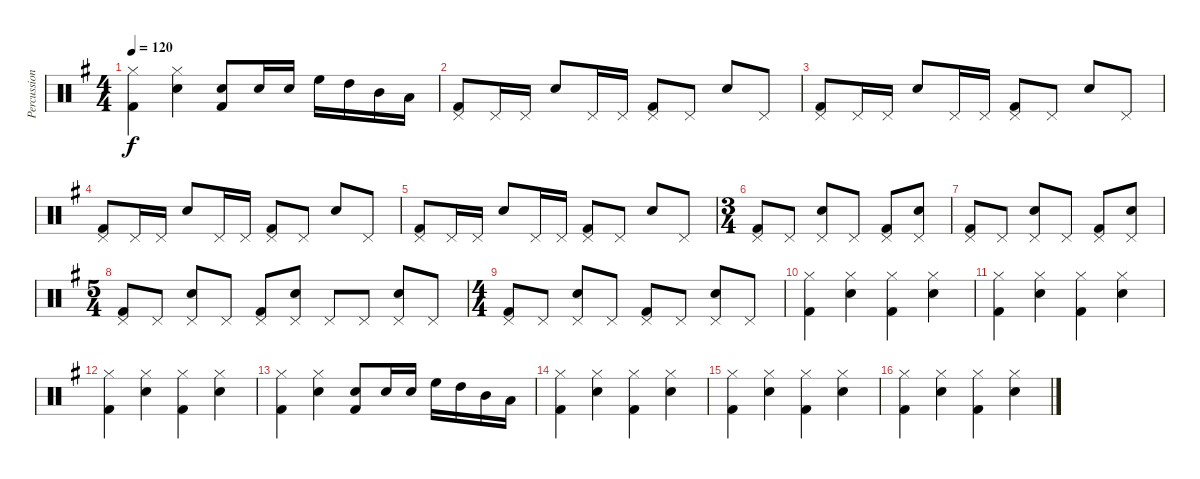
\track ("Percussion" "Percussion") {instrument percussion}
\staff {score}
\articulation defaults
\ts (4 4)
\tempo 120
\clef neutral
\ks eminor
("Hi-Hat (closed)" "Kick (hit) 2").4{dy f} ("Hi-Hat (closed)" "Snare (hit) 2").4 ("Snare (hit) 2" "Kick (hit) 2").8 "Snare (hit) 2".16 "Snare (hit) 2".16 "High Floor Tom (hit)".16 "High Tom (hit)".16 "Mid Tom (hit)".16 "Low Tom (hit)".16 |
("Pedal Hi-Hat (hit)" "Kick (hit) 2").8 "Pedal Hi-Hat (hit)".16 "Pedal Hi-Hat (hit)".16 "Snare (hit) 2".8 "Pedal Hi-Hat (hit)".16 "Pedal Hi-Hat (hit)".16 ("Pedal Hi-Hat (hit)" "Kick (hit) 2").8 "Pedal Hi-Hat (hit)".8 "Snare (hit) 2".8 "Pedal Hi-Hat (hit)".8 |
("Pedal Hi-Hat (hit)" "Kick (hit) 2").8 "Pedal Hi-Hat (hit)".16 "Pedal Hi-Hat (hit)".16 "Snare (hit) 2".8 "Pedal Hi-Hat (hit)".16 "Pedal Hi-Hat (hit)".16 ("Pedal Hi-Hat (hit)" "Kick (hit) 2").8 "Pedal Hi-Hat (hit)".8 "Snare (hit) 2".8 "Pedal Hi-Hat (hit)".8 |
("Pedal Hi-Hat (hit)" "Kick (hit) 2").8 "Pedal Hi-Hat (hit)".16 "Pedal Hi-Hat (hit)".16 "Snare (hit) 2".8 "Pedal Hi-Hat (hit)".16 "Pedal Hi-Hat (hit)".16 ("Pedal Hi-Hat (hit)" "Kick (hit) 2").8 "Pedal Hi-Hat (hit)".8 "Snare (hit) 2".8 "Pedal Hi-Hat (hit)".8 |
("Pedal Hi-Hat (hit)" "Kick (hit) 2").8 "Pedal Hi-Hat (hit)".16 "Pedal Hi-Hat (hit)".16 "Snare (hit) 2".8 "Pedal Hi-Hat (hit)".16 "Pedal Hi-Hat (hit)".16 ("Pedal Hi-Hat (hit)" "Kick (hit) 2").8 "Pedal Hi-Hat (hit)".8 "Snare (hit) 2".8 "Pedal Hi-Hat (hit)".8 |
\ts (3 4)
("Pedal Hi-Hat (hit)" "Kick (hit) 2").8 "Pedal Hi-Hat (hit)".8 ("Pedal Hi-Hat (hit)" "Snare (hit) 2").8 "Pedal Hi-Hat (hit)".8 ("Pedal Hi-Hat (hit)" "Kick (hit) 2").8 ("Pedal Hi-Hat (hit)" "Snare (hit) 2").8 |
("Pedal Hi-Hat (hit)" "Kick (hit) 2").8 "Pedal Hi-Hat (hit)".8 ("Pedal Hi-Hat (hit)" "Snare (hit) 2").8 "Pedal Hi-Hat (hit)".8 ("Pedal Hi-Hat (hit)" "Kick (hit) 2").8 ("Pedal Hi-Hat (hit)" "Snare (hit) 2").8 |
\ts (5 4)
("Pedal Hi-Hat (hit)" "Kick (hit) 2").8 "Pedal Hi-Hat (hit)".8 ("Pedal Hi-Hat (hit)" "Snare (hit) 2").8 "Pedal Hi-Hat (hit)".8 ("Pedal Hi-Hat (hit)" "Kick (hit) 2").8 ("Pedal Hi-Hat (hit)" "Snare (hit) 2").8 "Pedal Hi-Hat (hit)".8 "Pedal Hi-Hat (hit)".8 ("Pedal Hi-Hat (hit)" "Snare (hit) 2").8 "Pedal Hi-Hat (hit)".8 |
\ts (4 4)
("Pedal Hi-Hat (hit)" "Kick (hit) 2").8 "Pedal Hi-Hat (hit)".8 ("Pedal Hi-Hat (hit)" "Snare (hit) 2").8 "Pedal Hi-Hat (hit)".8 ("Pedal Hi-Hat (hit)" "Kick (hit) 2").8 "Pedal Hi-Hat (hit)".8 ("Pedal Hi-Hat (hit)" "Snare (hit) 2").8 "Pedal Hi-Hat (hit)".8 |
("Hi-Hat (closed)" "Kick (hit) 2").4 ("Hi-Hat (closed)" "Snare (hit) 2").4 ("Hi-Hat (closed)" "Kick (hit) 2").4 ("Hi-Hat (closed)" "Snare (hit) 2").4 |
("Hi-Hat (closed)" "Kick (hit) 2").4 ("Hi-Hat (closed)" "Snare (hit) 2").4 ("Hi-Hat (closed)" "Kick (hit) 2").4 ("Hi-Hat (closed)" "Snare (hit) 2").4 |
("Hi-Hat (closed)" "Kick (hit) 2").4 ("Hi-Hat (closed)" "Snare (hit) 2").4 ("Hi-Hat (closed)" "Kick (hit) 2").4 ("Hi-Hat (closed)" "Snare (hit) 2").4 |
("Hi-Hat (closed)" "Kick (hit) 2").4 ("Hi-Hat (closed)" "Snare (hit) 2").4 ("Snare (hit) 2" "Kick (hit) 2").8 "Snare (hit) 2".16 "Snare (hit) 2".16 "High Floor Tom (hit)".16 "High Tom (hit)".16 "Mid Tom (hit)".16 "Low Tom (hit)".16 |
("Hi-Hat (closed)" "Kick (hit) 2").4 ("Hi-Hat (closed)" "Snare (hit) 2").4 ("Hi-Hat (closed)" "Kick (hit) 2").4 ("Hi-Hat (closed)" "Snare (hit) 2").4 |
("Hi-Hat (closed)" "Kick (hit) 2").4 ("Hi-Hat (closed)" "Snare (hit) 2").4 ("Hi-Hat (closed)" "Kick (hit) 2").4 ("Hi-Hat (closed)" "Snare (hit) 2").4 |
("Hi-Hat (closed)" "Kick (hit) 2").4 ("Hi-Hat (closed)" "Snare (hit) 2").4 ("Hi-Hat (closed)" "Kick (hit) 2").4 ("Hi-Hat (closed)" "Snare (hit) 2").4
